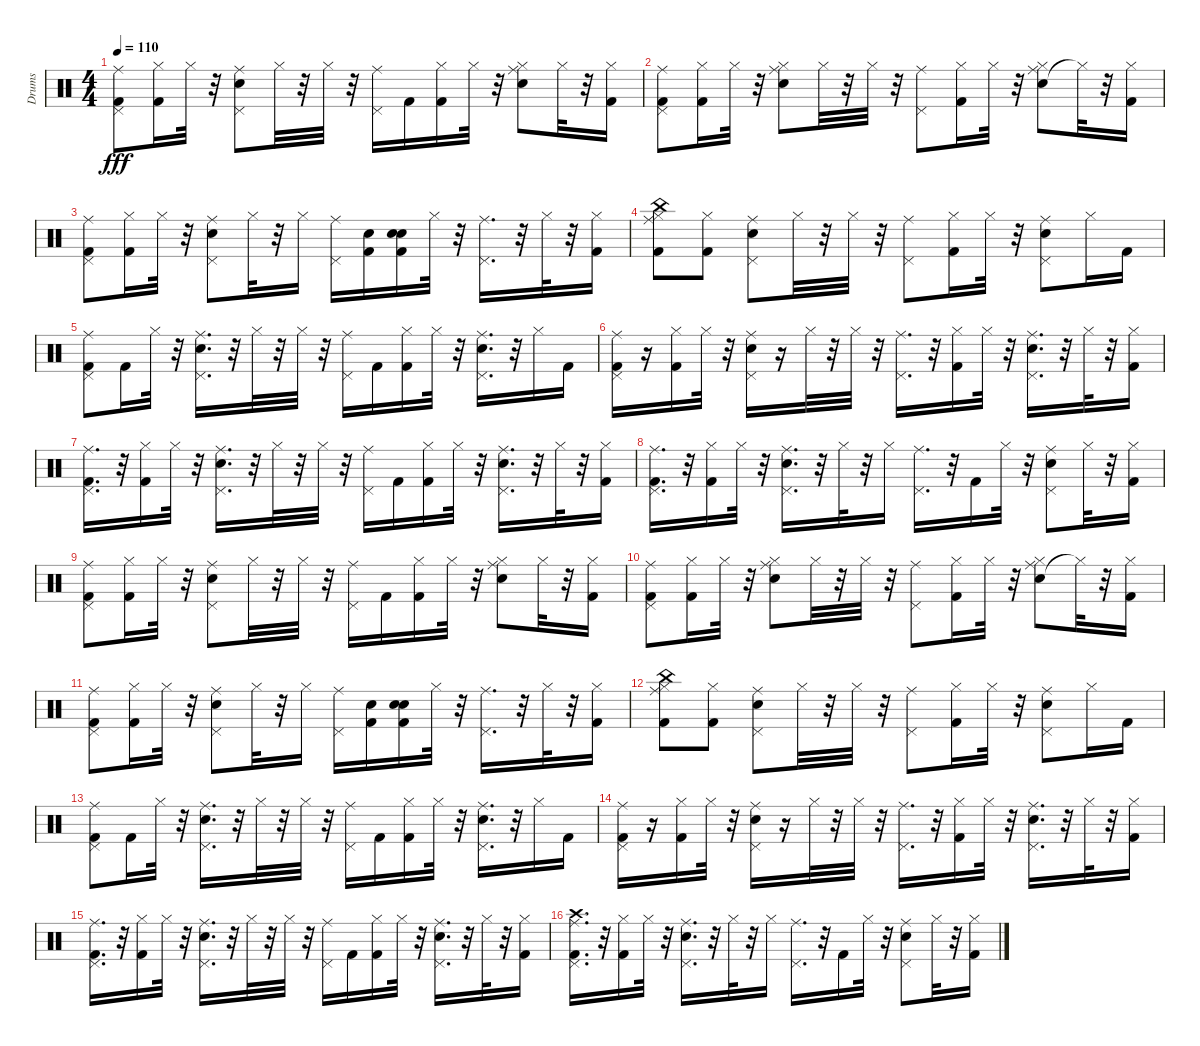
\track ("Drums" "Drums") {instrument percussion}
\staff {score}
\articulation defaults
\ts (4 4)
\tempo 110
\clef neutral
\ks c
("Kick (hit) 2" "Pedal Hi-Hat (hit)" "Ride (middle)").8{dy fff} ("Kick (hit) 2" "Hi-Hat (closed)").16 "Hi-Hat (closed)".32 r.32 ("Snare (hit) 2" "Pedal Hi-Hat (hit)" "Ride (middle)").8 "Hi-Hat (closed)".32 r.32 "Hi-Hat (closed)".32 r.32 ("Pedal Hi-Hat (hit)" "Ride (middle)").16 "Kick (hit) 2".16 ("Kick (hit) 2" "Hi-Hat (closed)").16 "Hi-Hat (closed)".32 r.32 ("Snare (hit) 2" "Hi-Hat (closed)" "Ride (middle)").8 "Hi-Hat (closed)".32 r.32 ("Kick (hit) 2" "Hi-Hat (closed)").16 |
("Kick (hit) 2" "Pedal Hi-Hat (hit)" "Ride (middle)").8 ("Kick (hit) 2" "Hi-Hat (closed)").16 "Hi-Hat (closed)".32 r.32 ("Snare (hit) 2" "Hi-Hat (closed)" "Ride (middle)").8 "Hi-Hat (closed)".32 r.32 "Hi-Hat (closed)".32 r.32 ("Pedal Hi-Hat (hit)" "Ride (middle)").8 ("Kick (hit) 2" "Hi-Hat (closed)").16 "Hi-Hat (closed)".32 r.32 ("Snare (hit) 2" "Hi-Hat (closed)" "Ride (middle)").8 "Hi-Hat (closed)"{t}.32 r.32 ("Kick (hit) 2" "Hi-Hat (closed)").16 |
("Kick (hit) 2" "Pedal Hi-Hat (hit)" "Ride (middle)").8 ("Kick (hit) 2" "Hi-Hat (closed)").16 "Hi-Hat (closed)".32 r.32 ("Snare (hit) 2" "Pedal Hi-Hat (hit)" "Ride (middle)").8 "Hi-Hat (closed)".32 r.32 "Hi-Hat (closed)".16 ("Pedal Hi-Hat (hit)" "Ride (middle)").16 ("Kick (hit) 2" "Snare (hit) 2").16 ("Snare (hit) 2" "Kick (hit) 2" "Snare (hit) 2").16 "Hi-Hat (closed)".32 r.32 ("Pedal Hi-Hat (hit)" "Ride (middle)").16{d} r.32 "Hi-Hat (closed)".32 r.32 ("Kick (hit) 2" "Hi-Hat (closed)").16 |
("Kick (hit) 2" "Hi-Hat (closed)" "Ride (middle)" "China (hit)").8 ("Kick (hit) 2" "Hi-Hat (closed)").8 ("Snare (hit) 2" "Pedal Hi-Hat (hit)" "Ride (middle)").8 "Hi-Hat (closed)".32 r.32 "Hi-Hat (closed)".32 r.32 ("Pedal Hi-Hat (hit)" "Ride (middle)").8 ("Kick (hit) 2" "Hi-Hat (closed)").16 "Hi-Hat (closed)".32 r.32 ("Snare (hit) 2" "Pedal Hi-Hat (hit)" "Ride (middle)").8 "Hi-Hat (closed)".16 "Kick (hit) 2".16 |
("Kick (hit) 2" "Pedal Hi-Hat (hit)" "Ride (middle)").8 "Kick (hit) 2".16 "Hi-Hat (closed)".32 r.32 ("Snare (hit) 2" "Pedal Hi-Hat (hit)" "Ride (middle)").16{d} r.32 "Hi-Hat (closed)".32 r.32 "Hi-Hat (closed)".32 r.32 ("Pedal Hi-Hat (hit)" "Ride (middle)").16 "Kick (hit) 2".16 ("Kick (hit) 2" "Hi-Hat (closed)").16 "Hi-Hat (closed)".32 r.32 ("Snare (hit) 2" "Pedal Hi-Hat (hit)" "Ride (middle)").16{d} r.32 "Hi-Hat (closed)".16 "Kick (hit) 2".16 |
("Kick (hit) 2" "Pedal Hi-Hat (hit)" "Ride (middle)").16 r.16 ("Kick (hit) 2" "Hi-Hat (closed)").16 "Hi-Hat (closed)".32 r.32 ("Snare (hit) 2" "Pedal Hi-Hat (hit)" "Ride (middle)").16 r.16 "Hi-Hat (closed)".32 r.32 "Hi-Hat (closed)".32 r.32 ("Pedal Hi-Hat (hit)" "Ride (middle)").16{d} r.32 ("Kick (hit) 2" "Hi-Hat (closed)").16 "Hi-Hat (closed)".32 r.32 ("Snare (hit) 2" "Pedal Hi-Hat (hit)" "Ride (middle)").16{d} r.32 "Hi-Hat (closed)".32 r.32 ("Kick (hit) 2" "Hi-Hat (closed)").16 |
("Kick (hit) 2" "Pedal Hi-Hat (hit)" "Ride (middle)").16{d} r.32 ("Kick (hit) 2" "Hi-Hat (closed)").16 "Hi-Hat (closed)".32 r.32 ("Snare (hit) 2" "Pedal Hi-Hat (hit)" "Ride (middle)").16{d} r.32 "Hi-Hat (closed)".32 r.32 "Hi-Hat (closed)".32 r.32 ("Pedal Hi-Hat (hit)" "Ride (middle)").16 "Kick (hit) 2".16 ("Kick (hit) 2" "Hi-Hat (closed)").16 "Hi-Hat (closed)".32 r.32 ("Snare (hit) 2" "Pedal Hi-Hat (hit)" "Ride (middle)").16{d} r.32 "Hi-Hat (closed)".32 r.32 ("Kick (hit) 2" "Hi-Hat (closed)").16 |
("Kick (hit) 2" "Pedal Hi-Hat (hit)" "Ride (middle)").16{d} r.32 ("Kick (hit) 2" "Hi-Hat (closed)").16 "Hi-Hat (closed)".32 r.32 ("Snare (hit) 2" "Pedal Hi-Hat (hit)" "Ride (middle)").16{d} r.32 "Hi-Hat (closed)".32 r.32 "Hi-Hat (closed)".16 ("Pedal Hi-Hat (hit)" "Ride (middle)").16{d} r.32 "Kick (hit) 2".16 "Hi-Hat (closed)".32 r.32 ("Snare (hit) 2" "Pedal Hi-Hat (hit)" "Ride (middle)").8 "Hi-Hat (closed)".32 r.32 ("Kick (hit) 2" "Hi-Hat (closed)").16 |
("Kick (hit) 2" "Pedal Hi-Hat (hit)" "Ride (middle)").8 ("Kick (hit) 2" "Hi-Hat (closed)").16 "Hi-Hat (closed)".32 r.32 ("Snare (hit) 2" "Pedal Hi-Hat (hit)" "Ride (middle)").8 "Hi-Hat (closed)".32 r.32 "Hi-Hat (closed)".32 r.32 ("Pedal Hi-Hat (hit)" "Ride (middle)").16 "Kick (hit) 2".16 ("Kick (hit) 2" "Hi-Hat (closed)").16 "Hi-Hat (closed)".32 r.32 ("Snare (hit) 2" "Hi-Hat (closed)" "Ride (middle)").8 "Hi-Hat (closed)".32 r.32 ("Kick (hit) 2" "Hi-Hat (closed)").16 |
("Kick (hit) 2" "Pedal Hi-Hat (hit)" "Ride (middle)").8 ("Kick (hit) 2" "Hi-Hat (closed)").16 "Hi-Hat (closed)".32 r.32 ("Snare (hit) 2" "Hi-Hat (closed)" "Ride (middle)").8 "Hi-Hat (closed)".32 r.32 "Hi-Hat (closed)".32 r.32 ("Pedal Hi-Hat (hit)" "Ride (middle)").8 ("Kick (hit) 2" "Hi-Hat (closed)").16 "Hi-Hat (closed)".32 r.32 ("Snare (hit) 2" "Hi-Hat (closed)" "Ride (middle)").8 "Hi-Hat (closed)"{t}.32 r.32 ("Kick (hit) 2" "Hi-Hat (closed)").16 |
("Kick (hit) 2" "Pedal Hi-Hat (hit)" "Ride (middle)").8 ("Kick (hit) 2" "Hi-Hat (closed)").16 "Hi-Hat (closed)".32 r.32 ("Snare (hit) 2" "Pedal Hi-Hat (hit)" "Ride (middle)").8 "Hi-Hat (closed)".32 r.32 "Hi-Hat (closed)".16 ("Pedal Hi-Hat (hit)" "Ride (middle)").16 ("Kick (hit) 2" "Snare (hit) 2").16 ("Snare (hit) 2" "Kick (hit) 2" "Snare (hit) 2").16 "Hi-Hat (closed)".32 r.32 ("Pedal Hi-Hat (hit)" "Ride (middle)").16{d} r.32 "Hi-Hat (closed)".32 r.32 ("Kick (hit) 2" "Hi-Hat (closed)").16 |
("Kick (hit) 2" "Hi-Hat (closed)" "Ride (middle)" "China (hit)").8 ("Kick (hit) 2" "Hi-Hat (closed)").8 ("Snare (hit) 2" "Pedal Hi-Hat (hit)" "Ride (middle)").8 "Hi-Hat (closed)".32 r.32 "Hi-Hat (closed)".32 r.32 ("Pedal Hi-Hat (hit)" "Ride (middle)").8 ("Kick (hit) 2" "Hi-Hat (closed)").16 "Hi-Hat (closed)".32 r.32 ("Snare (hit) 2" "Pedal Hi-Hat (hit)" "Ride (middle)").8 "Hi-Hat (closed)".16 "Kick (hit) 2".16 |
("Kick (hit) 2" "Pedal Hi-Hat (hit)" "Ride (middle)").8 "Kick (hit) 2".16 "Hi-Hat (closed)".32 r.32 ("Snare (hit) 2" "Pedal Hi-Hat (hit)" "Ride (middle)").16{d} r.32 "Hi-Hat (closed)".32 r.32 "Hi-Hat (closed)".32 r.32 ("Pedal Hi-Hat (hit)" "Ride (middle)").16 "Kick (hit) 2".16 ("Kick (hit) 2" "Hi-Hat (closed)").16 "Hi-Hat (closed)".32 r.32 ("Snare (hit) 2" "Pedal Hi-Hat (hit)" "Ride (middle)").16{d} r.32 "Hi-Hat (closed)".16 "Kick (hit) 2".16 |
("Kick (hit) 2" "Pedal Hi-Hat (hit)" "Ride (middle)").16 r.16 ("Kick (hit) 2" "Hi-Hat (closed)").16 "Hi-Hat (closed)".32 r.32 ("Snare (hit) 2" "Pedal Hi-Hat (hit)" "Ride (middle)").16 r.16 "Hi-Hat (closed)".32 r.32 "Hi-Hat (closed)".32 r.32 ("Pedal Hi-Hat (hit)" "Ride (middle)").16{d} r.32 ("Kick (hit) 2" "Hi-Hat (closed)").16 "Hi-Hat (closed)".32 r.32 ("Snare (hit) 2" "Pedal Hi-Hat (hit)" "Ride (middle)").16{d} r.32 "Hi-Hat (closed)".32 r.32 ("Kick (hit) 2" "Hi-Hat (closed)").16 |
("Kick (hit) 2" "Pedal Hi-Hat (hit)" "Ride (middle)").16{d} r.32 ("Kick (hit) 2" "Hi-Hat (closed)").16 "Hi-Hat (closed)".32 r.32 ("Snare (hit) 2" "Pedal Hi-Hat (hit)" "Ride (middle)").16{d} r.32 "Hi-Hat (closed)".32 r.32 "Hi-Hat (closed)".32 r.32 ("Pedal Hi-Hat (hit)" "Ride (middle)").16 "Kick (hit) 2".16 ("Kick (hit) 2" "Hi-Hat (closed)").16 "Hi-Hat (closed)".32 r.32 ("Snare (hit) 2" "Pedal Hi-Hat (hit)" "Ride (middle)").16{d} r.32 "Hi-Hat (closed)".32 r.32 ("Kick (hit) 2" "Hi-Hat (closed)").16 |
("Kick (hit) 2" "Pedal Hi-Hat (hit)" "Ride (middle)" "Crash high (hit)").16{d} r.32 ("Kick (hit) 2" "Hi-Hat (closed)").16 "Hi-Hat (closed)".32 r.32 ("Snare (hit) 2" "Pedal Hi-Hat (hit)" "Ride (middle)").16{d} r.32 "Hi-Hat (closed)".32 r.32 "Hi-Hat (closed)".16 ("Pedal Hi-Hat (hit)" "Ride (middle)").16{d} r.32 "Kick (hit) 2".16 "Hi-Hat (closed)".32 r.32 ("Snare (hit) 2" "Pedal Hi-Hat (hit)" "Ride (middle)").8 "Hi-Hat (closed)".32 r.32 ("Kick (hit) 2" "Hi-Hat (closed)").16
